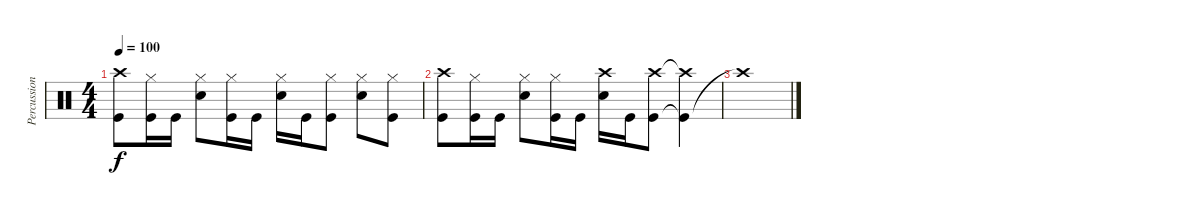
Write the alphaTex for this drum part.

\track ("Percussions" "Percussion") {instrument percussion}
\staff {score}
\articulation defaults
\ts (4 4)
\tempo 100
\clef neutral
\ks c
("Crash high (hit)" "Kick (hit)").8{dy f} ("Hi-Hat (closed)" "Kick (hit)").16 "Kick (hit)".16 ("Hi-Hat (closed)" "Snare (hit) 2").8 ("Hi-Hat (closed)" "Kick (hit)").16 "Kick (hit)".16 ("Hi-Hat (closed)" "Snare (hit) 2").16 "Kick (hit)".16 ("Kick (hit)" "Hi-Hat (closed)").8 ("Hi-Hat (closed)" "Snare (hit) 2").8 ("Kick (hit)" "Hi-Hat (closed)").8 |
("Crash high (hit)" "Kick (hit)").8 ("Hi-Hat (closed)" "Kick (hit)").16 "Kick (hit)".16 ("Hi-Hat (closed)" "Snare (hit) 2").8 ("Hi-Hat (closed)" "Kick (hit)").16 "Kick (hit)".16 ("Crash high (hit)" "Snare (hit) 2").16 "Kick (hit)".16 ("Kick (hit)" "Crash high (hit)").8 ("Kick (hit)"{t} "Crash high (hit)"{t}).4 |
"Crash high (hit)"{t}.1
